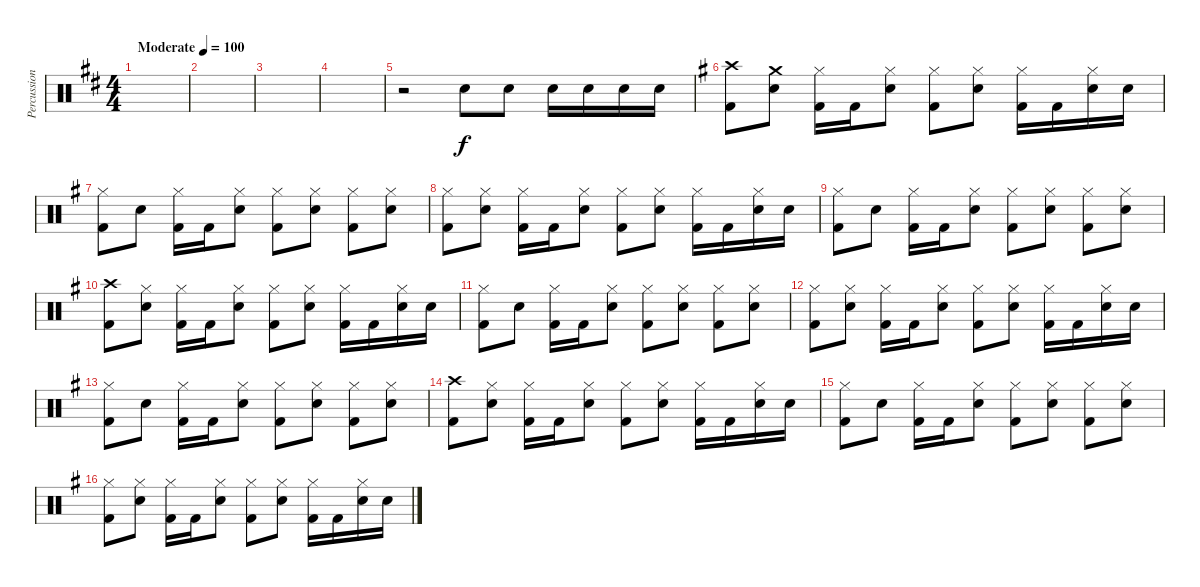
\track ("Percussion" "Percussion") {instrument percussion}
\staff {score}
\articulation defaults
\ts (4 4)
\tempo (100 "Moderate")
\clef neutral
\ks d
|
|
|
|
r.2 "Snare (hit) 2".8 "Snare (hit) 2".8 "Snare (hit) 2".16 "Snare (hit) 2".16 "Snare (hit) 2".16 "Snare (hit) 2".16 |
\ks g
("Crash high (hit)" "Kick (hit) 2").8 ("Crash medium (hit)" "Snare (hit) 2").8 ("Hi-Hat (closed)" "Kick (hit) 2").16 "Kick (hit) 2".16 ("Hi-Hat (closed)" "Snare (hit) 2").8 ("Hi-Hat (closed)" "Kick (hit) 2").8 ("Hi-Hat (closed)" "Snare (hit) 2").8 ("Hi-Hat (closed)" "Kick (hit) 2").16 "Kick (hit) 2".16 ("Hi-Hat (closed)" "Snare (hit) 2").16 "Snare (hit) 2".16 |
("Hi-Hat (closed)" "Kick (hit) 2").8 "Snare (hit) 2".8 ("Hi-Hat (closed)" "Kick (hit) 2").16 "Kick (hit) 2".16 ("Hi-Hat (closed)" "Snare (hit) 2").8 ("Hi-Hat (closed)" "Kick (hit) 2").8 ("Hi-Hat (closed)" "Snare (hit) 2").8 ("Hi-Hat (closed)" "Kick (hit) 2").8 ("Hi-Hat (closed)" "Snare (hit) 2").8 |
("Hi-Hat (closed)" "Kick (hit) 2").8 ("Hi-Hat (closed)" "Snare (hit) 2").8 ("Hi-Hat (closed)" "Kick (hit) 2").16 "Kick (hit) 2".16 ("Hi-Hat (closed)" "Snare (hit) 2").8 ("Hi-Hat (closed)" "Kick (hit) 2").8 ("Hi-Hat (closed)" "Snare (hit) 2").8 ("Hi-Hat (closed)" "Kick (hit) 2").16 "Kick (hit) 2".16 ("Hi-Hat (closed)" "Snare (hit) 2").16 "Snare (hit) 2".16 |
("Hi-Hat (closed)" "Kick (hit) 2").8 "Snare (hit) 2".8 ("Hi-Hat (closed)" "Kick (hit) 2").16 "Kick (hit) 2".16 ("Hi-Hat (closed)" "Snare (hit) 2").8 ("Hi-Hat (closed)" "Kick (hit) 2").8 ("Hi-Hat (closed)" "Snare (hit) 2").8 ("Hi-Hat (closed)" "Kick (hit) 2").8 ("Hi-Hat (closed)" "Snare (hit) 2").8 |
("Crash high (hit)" "Kick (hit) 2").8 ("Hi-Hat (closed)" "Snare (hit) 2").8 ("Hi-Hat (closed)" "Kick (hit) 2").16 "Kick (hit) 2".16 ("Hi-Hat (closed)" "Snare (hit) 2").8 ("Hi-Hat (closed)" "Kick (hit) 2").8 ("Hi-Hat (closed)" "Snare (hit) 2").8 ("Hi-Hat (closed)" "Kick (hit) 2").16 "Kick (hit) 2".16 ("Hi-Hat (closed)" "Snare (hit) 2").16 "Snare (hit) 2".16 |
("Hi-Hat (closed)" "Kick (hit) 2").8 "Snare (hit) 2".8 ("Hi-Hat (closed)" "Kick (hit) 2").16 "Kick (hit) 2".16 ("Hi-Hat (closed)" "Snare (hit) 2").8 ("Hi-Hat (closed)" "Kick (hit) 2").8 ("Hi-Hat (closed)" "Snare (hit) 2").8 ("Hi-Hat (closed)" "Kick (hit) 2").8 ("Hi-Hat (closed)" "Snare (hit) 2").8 |
("Hi-Hat (closed)" "Kick (hit) 2").8 ("Hi-Hat (closed)" "Snare (hit) 2").8 ("Hi-Hat (closed)" "Kick (hit) 2").16 "Kick (hit) 2".16 ("Hi-Hat (closed)" "Snare (hit) 2").8 ("Hi-Hat (closed)" "Kick (hit) 2").8 ("Hi-Hat (closed)" "Snare (hit) 2").8 ("Hi-Hat (closed)" "Kick (hit) 2").16 "Kick (hit) 2".16 ("Hi-Hat (closed)" "Snare (hit) 2").16 "Snare (hit) 2".16 |
("Hi-Hat (closed)" "Kick (hit) 2").8 "Snare (hit) 2".8 ("Hi-Hat (closed)" "Kick (hit) 2").16 "Kick (hit) 2".16 ("Hi-Hat (closed)" "Snare (hit) 2").8 ("Hi-Hat (closed)" "Kick (hit) 2").8 ("Hi-Hat (closed)" "Snare (hit) 2").8 ("Hi-Hat (closed)" "Kick (hit) 2").8 ("Hi-Hat (closed)" "Snare (hit) 2").8 |
("Crash high (hit)" "Kick (hit) 2").8 ("Hi-Hat (closed)" "Snare (hit) 2").8 ("Hi-Hat (closed)" "Kick (hit) 2").16 "Kick (hit) 2".16 ("Hi-Hat (closed)" "Snare (hit) 2").8 ("Hi-Hat (closed)" "Kick (hit) 2").8 ("Hi-Hat (closed)" "Snare (hit) 2").8 ("Hi-Hat (closed)" "Kick (hit) 2").16 "Kick (hit) 2".16 ("Hi-Hat (closed)" "Snare (hit) 2").16 "Snare (hit) 2".16 |
("Hi-Hat (closed)" "Kick (hit) 2").8 "Snare (hit) 2".8 ("Hi-Hat (closed)" "Kick (hit) 2").16 "Kick (hit) 2".16 ("Hi-Hat (closed)" "Snare (hit) 2").8 ("Hi-Hat (closed)" "Kick (hit) 2").8 ("Hi-Hat (closed)" "Snare (hit) 2").8 ("Hi-Hat (closed)" "Kick (hit) 2").8 ("Hi-Hat (closed)" "Snare (hit) 2").8 |
("Hi-Hat (closed)" "Kick (hit) 2").8 ("Hi-Hat (closed)" "Snare (hit) 2").8 ("Hi-Hat (closed)" "Kick (hit) 2").16 "Kick (hit) 2".16 ("Hi-Hat (closed)" "Snare (hit) 2").8 ("Hi-Hat (closed)" "Kick (hit) 2").8 ("Hi-Hat (closed)" "Snare (hit) 2").8 ("Hi-Hat (closed)" "Kick (hit) 2").16 "Kick (hit) 2".16 ("Hi-Hat (closed)" "Snare (hit) 2").16 "Snare (hit) 2".16
